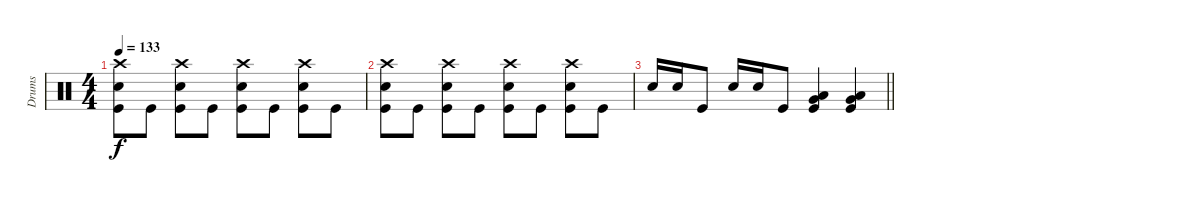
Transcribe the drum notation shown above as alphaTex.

\track ("Drums" "Drums") {instrument percussion}
\staff
\articulation defaults
\ts (4 4)
\tempo 133
\clef neutral
\ks c
("Crash high (hit)" "Electric Snare (hit)" "Kick (hit)").8{dy f} "Kick (hit)".8 ("Crash high (hit)" "Electric Snare (hit)" "Kick (hit)").8 "Kick (hit)".8 ("Crash high (hit)" "Electric Snare (hit)" "Kick (hit)").8 "Kick (hit)".8 ("Crash high (hit)" "Electric Snare (hit)" "Kick (hit)").8 "Kick (hit)".8 |
("Crash high (hit)" "Electric Snare (hit)" "Kick (hit)").8 "Kick (hit)".8 ("Crash high (hit)" "Electric Snare (hit)" "Kick (hit)").8 "Kick (hit)".8 ("Crash high (hit)" "Electric Snare (hit)" "Kick (hit)").8 "Kick (hit)".8 ("Crash high (hit)" "Electric Snare (hit)" "Kick (hit)").8 "Kick (hit)".8 |
\barLineRight lightlight "Electric Snare (hit)".16 "Electric Snare (hit)".16 "Kick (hit)".8 "Electric Snare (hit)".16 "Electric Snare (hit)".16 "Kick (hit)".8
("Very Low Tom (hit)" "Low Floor Tom (hit)" "Kick (hit)").4 ("Very Low Tom (hit)" "Low Floor Tom (hit)" "Kick (hit)").4
